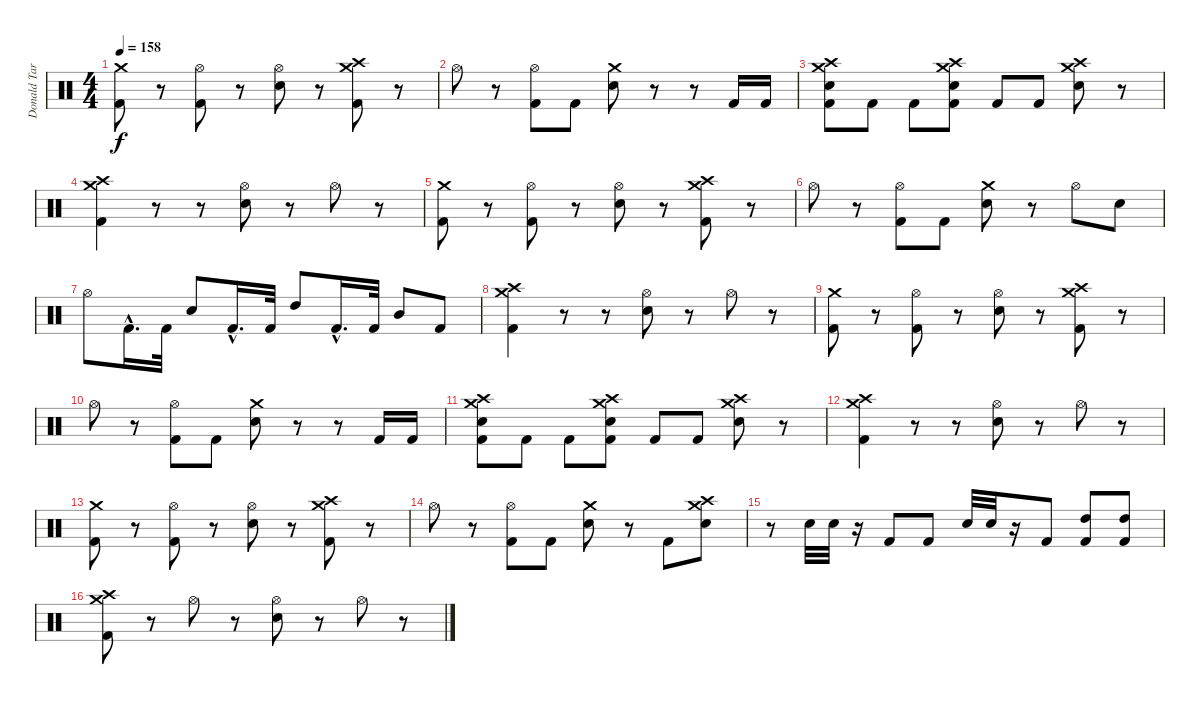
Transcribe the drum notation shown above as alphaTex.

\track ("Donald Tardy (Drums)" "Donald Tar") {instrument percussion}
\staff {score}
\articulation defaults
\ts (4 4)
\tempo 158
\clef neutral
\ks c
("Kick (hit) 2" "Crash medium (hit)").8{dy f} r.8 ("Kick (hit) 2" "Hi-Hat (open)").8 r.8 ("Electric Snare (hit)" "Hi-Hat (open)").8 r.8 ("Kick (hit) 2" "Crash medium (hit)" "Crash high (hit)").8 r.8 |
"Hi-Hat (open)".8 r.8 ("Kick (hit) 2" "Hi-Hat (open)").8 "Kick (hit) 2".8 ("Electric Snare (hit)" "Crash medium (hit)").8 r.8 r.8 "Kick (hit) 2".16 "Kick (hit) 2".16 |
("Kick (hit) 2" "Electric Snare (hit)" "Crash medium (hit)" "Crash high (hit)").8 "Kick (hit) 2".8 "Kick (hit) 2".8 ("Kick (hit) 2" "Electric Snare (hit)" "Crash medium (hit)" "Crash high (hit)").8 "Kick (hit) 2".8 "Kick (hit) 2".8 ("Electric Snare (hit)" "Crash high (hit)" "Crash medium (hit)").8 r.8 |
("Kick (hit) 2" "Crash medium (hit)" "Crash high (hit)").4 r.8 r.8 ("Electric Snare (hit)" "Hi-Hat (open)").8 r.8 "Hi-Hat (open)".8 r.8 |
("Kick (hit) 2" "Crash medium (hit)").8 r.8 ("Kick (hit) 2" "Hi-Hat (open)").8 r.8 ("Electric Snare (hit)" "Hi-Hat (open)").8 r.8 ("Kick (hit) 2" "Crash medium (hit)" "Crash high (hit)").8 r.8 |
"Hi-Hat (open)".8 r.8 ("Kick (hit) 2" "Hi-Hat (open)").8 "Kick (hit) 2".8 ("Electric Snare (hit)" "Crash medium (hit)").8 r.8 "Hi-Hat (open)".8 "Electric Snare (hit)".8 |
"Hi-Hat (open)".8 "Kick (hit) 2"{hac}.16{d} "Kick (hit) 2".32 "Electric Snare (hit)".8 "Kick (hit) 2"{hac}.16{d} "Kick (hit) 2".32 "High Tom (hit)".8 "Kick (hit) 2"{hac}.16{d} "Kick (hit) 2".32 "Mid Tom (hit)".8 "Kick (hit) 2".8 |
("Kick (hit) 2" "Crash medium (hit)" "Crash high (hit)").4 r.8 r.8 ("Electric Snare (hit)" "Hi-Hat (open)").8 r.8 "Hi-Hat (open)".8 r.8 |
("Kick (hit) 2" "Crash medium (hit)").8 r.8 ("Kick (hit) 2" "Hi-Hat (open)").8 r.8 ("Electric Snare (hit)" "Hi-Hat (open)").8 r.8 ("Kick (hit) 2" "Crash medium (hit)" "Crash high (hit)").8 r.8 |
"Hi-Hat (open)".8 r.8 ("Kick (hit) 2" "Hi-Hat (open)").8 "Kick (hit) 2".8 ("Electric Snare (hit)" "Crash medium (hit)").8 r.8 r.8 "Kick (hit) 2".16 "Kick (hit) 2".16 |
("Kick (hit) 2" "Electric Snare (hit)" "Crash medium (hit)" "Crash high (hit)").8 "Kick (hit) 2".8 "Kick (hit) 2".8 ("Kick (hit) 2" "Electric Snare (hit)" "Crash medium (hit)" "Crash high (hit)").8 "Kick (hit) 2".8 "Kick (hit) 2".8 ("Electric Snare (hit)" "Crash high (hit)" "Crash medium (hit)").8 r.8 |
("Kick (hit) 2" "Crash medium (hit)" "Crash high (hit)").4 r.8 r.8 ("Electric Snare (hit)" "Hi-Hat (open)").8 r.8 "Hi-Hat (open)".8 r.8 |
("Kick (hit) 2" "Crash medium (hit)").8 r.8 ("Kick (hit) 2" "Hi-Hat (open)").8 r.8 ("Electric Snare (hit)" "Hi-Hat (open)").8 r.8 ("Kick (hit) 2" "Crash medium (hit)" "Crash high (hit)").8 r.8 |
"Hi-Hat (open)".8 r.8 ("Kick (hit) 2" "Hi-Hat (open)").8 "Kick (hit) 2".8 ("Electric Snare (hit)" "Crash medium (hit)").8 r.8 "Kick (hit) 2".8 ("Electric Snare (hit)" "Crash high (hit)" "Crash medium (hit)").8 |
r.8 "Electric Snare (hit)".32 "Electric Snare (hit)".32 r.16 "Kick (hit) 2".8 "Kick (hit) 2".8 "Electric Snare (hit)".32 "Electric Snare (hit)".32 r.16 "Kick (hit) 2".8 ("Kick (hit) 2" "High Tom (hit)").8 ("Kick (hit) 2" "High Tom (hit)").8 |
("Kick (hit) 2" "Crash medium (hit)" "Crash high (hit)").8 r.8 "Hi-Hat (open)".8 r.8 ("Electric Snare (hit)" "Hi-Hat (open)").8 r.8 "Hi-Hat (open)".8 r.8
